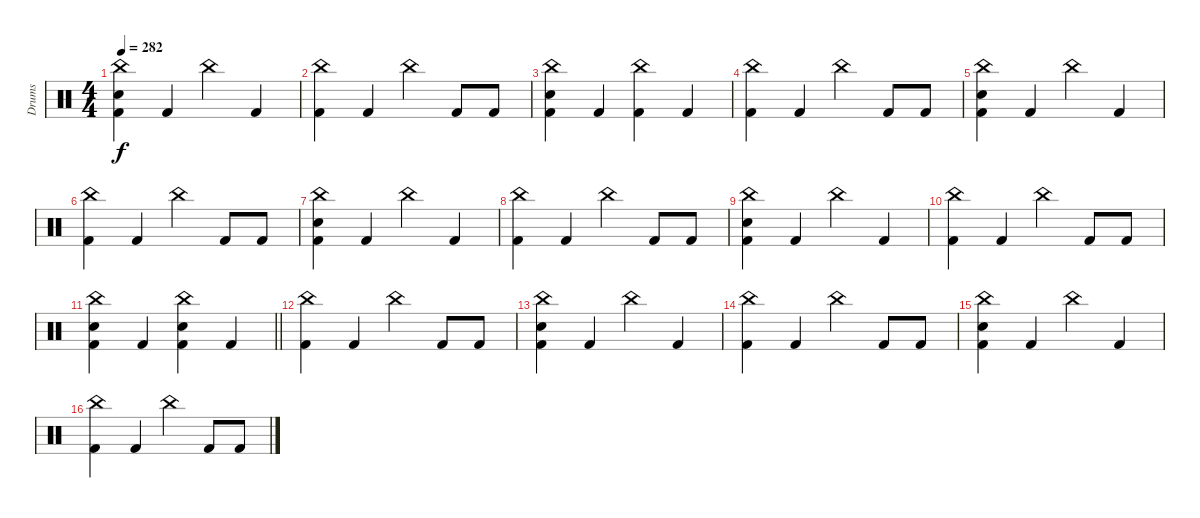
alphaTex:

\track ("Drums" "Drums") {instrument percussion}
\staff {score}
\articulation defaults
\ts (4 4)
\tempo 282
\clef neutral
\ks c
("China (hit)" "Snare (hit) 2" "Kick (hit) 2").4{dy f} "Kick (hit) 2".4 "China (hit)".4 "Kick (hit) 2".4 |
("China (hit)" "Kick (hit) 2").4 "Kick (hit) 2".4 "China (hit)".4 "Kick (hit) 2".8 "Kick (hit) 2".8 |
("China (hit)" "Snare (hit) 2" "Kick (hit) 2").4 "Kick (hit) 2".4 ("China (hit)" "Kick (hit) 2").4 "Kick (hit) 2".4 |
("China (hit)" "Kick (hit) 2").4 "Kick (hit) 2".4 "China (hit)".4 "Kick (hit) 2".8 "Kick (hit) 2".8 |
("China (hit)" "Snare (hit) 2" "Kick (hit) 2").4 "Kick (hit) 2".4 "China (hit)".4 "Kick (hit) 2".4 |
("China (hit)" "Kick (hit) 2").4 "Kick (hit) 2".4 "China (hit)".4 "Kick (hit) 2".8 "Kick (hit) 2".8 |
("China (hit)" "Snare (hit) 2" "Kick (hit) 2").4 "Kick (hit) 2".4 "China (hit)".4 "Kick (hit) 2".4 |
("China (hit)" "Kick (hit) 2").4 "Kick (hit) 2".4 "China (hit)".4 "Kick (hit) 2".8 "Kick (hit) 2".8 |
("China (hit)" "Snare (hit) 2" "Kick (hit) 2").4 "Kick (hit) 2".4 "China (hit)".4 "Kick (hit) 2".4 |
("China (hit)" "Kick (hit) 2").4 "Kick (hit) 2".4 "China (hit)".4 "Kick (hit) 2".8 "Kick (hit) 2".8 |
\barLineRight lightlight
("China (hit)" "Snare (hit) 2" "Kick (hit) 2").4 "Kick (hit) 2".4 ("China (hit)" "Snare (hit) 2" "Kick (hit) 2").4 "Kick (hit) 2".4 |
("China (hit)" "Kick (hit) 2").4 "Kick (hit) 2".4 "China (hit)".4 "Kick (hit) 2".8 "Kick (hit) 2".8 |
("China (hit)" "Snare (hit) 2" "Kick (hit) 2").4 "Kick (hit) 2".4 "China (hit)".4 "Kick (hit) 2".4 |
("China (hit)" "Kick (hit) 2").4 "Kick (hit) 2".4 "China (hit)".4 "Kick (hit) 2".8 "Kick (hit) 2".8 |
("China (hit)" "Snare (hit) 2" "Kick (hit) 2").4 "Kick (hit) 2".4 "China (hit)".4 "Kick (hit) 2".4 |
("China (hit)" "Kick (hit) 2").4 "Kick (hit) 2".4 "China (hit)".4 "Kick (hit) 2".8 "Kick (hit) 2".8
